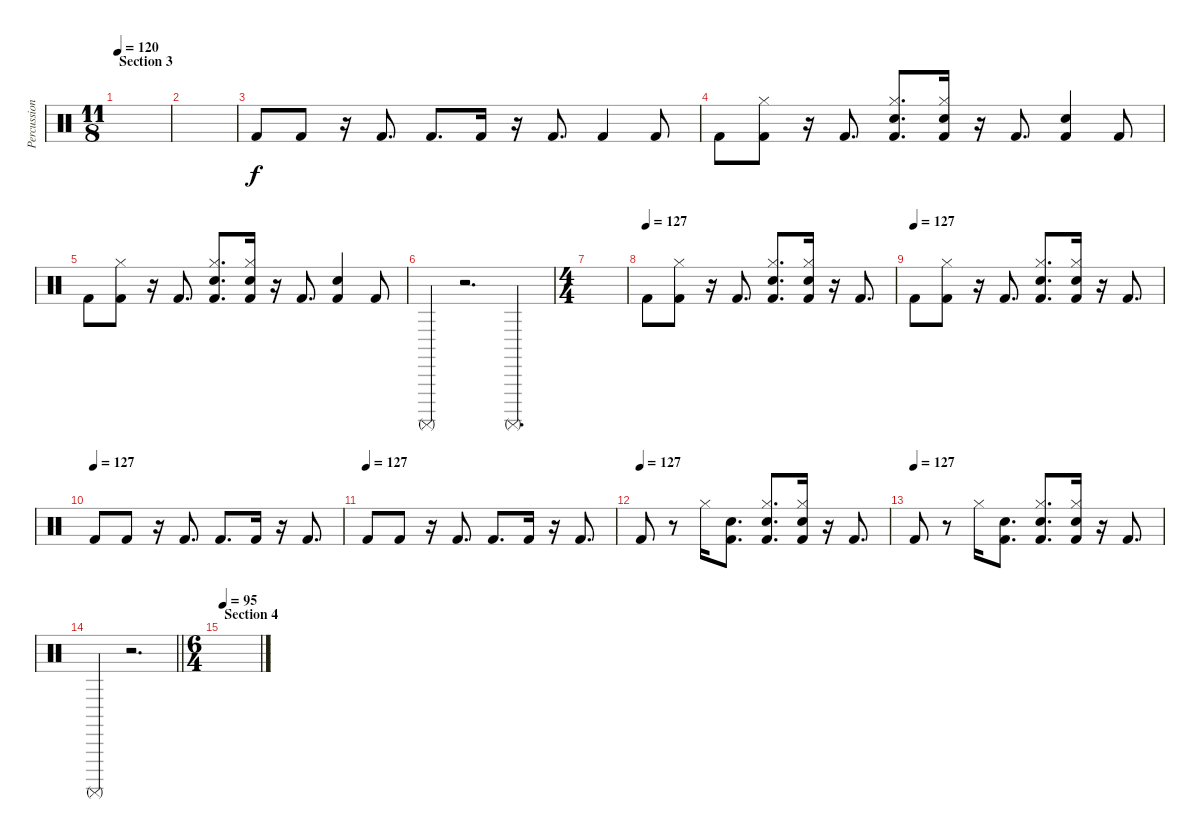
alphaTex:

\track ("Percussion" "Percussion") {instrument percussion}
\staff {score}
\articulation defaults
\ts (11 8)
\section ("" "Section 3")
\tempo 120
\clef neutral
\ks c
|
|
"Kick (hit) 2".8{volume 16} "Kick (hit) 2".8 r.16 "Kick (hit) 2".8{d} "Kick (hit) 2".8{d} "Kick (hit) 2".16 r.16 "Kick (hit) 2".8{d} "Kick (hit) 2".4 "Kick (hit) 2".8 |
"Kick (hit) 2".8 ("Hi-Hat (closed)" "Kick (hit) 2").8 r.16 "Kick (hit) 2".8{d} ("Hi-Hat (closed)" "Hand Clap (hit)" "Kick (hit) 2").8{d} ("Hi-Hat (closed)" "Snare (hit) 2" "Kick (hit) 2").16 r.16 "Kick (hit) 2".8{d} ("Hand Clap (hit)" "Kick (hit) 2").4 "Kick (hit) 2".8 |
"Kick (hit) 2".8 ("Hi-Hat (closed)" "Kick (hit) 2").8 r.16 "Kick (hit) 2".8{d} ("Hi-Hat (closed)" "Hand Clap (hit)" "Kick (hit) 2").8{d} ("Hi-Hat (closed)" "Snare (hit) 2" "Kick (hit) 2").16 r.16 "Kick (hit) 2".8{d} ("Hand Clap (hit)" "Kick (hit) 2").4 "Kick (hit) 2".8 |
"Surdo (mute)".4 r.2{d} "Surdo (mute)".4{d} |
\ts (4 4)
|
\tempo (127)
"Kick (hit) 2".8 ("Hi-Hat (closed)" "Kick (hit) 2").8 r.16 "Kick (hit) 2".8{d} ("Hi-Hat (closed)" "Hand Clap (hit)" "Kick (hit) 2").8{d} ("Hi-Hat (closed)" "Snare (hit) 2" "Kick (hit) 2").16 r.16 "Kick (hit) 2".8{d} |
\tempo (127)
"Kick (hit) 2".8 ("Hi-Hat (closed)" "Kick (hit) 2").8 r.16 "Kick (hit) 2".8{d} ("Hi-Hat (closed)" "Hand Clap (hit)" "Kick (hit) 2").8{d} ("Hi-Hat (closed)" "Snare (hit) 2" "Kick (hit) 2").16 r.16 "Kick (hit) 2".8{d} |
\tempo (127)
"Kick (hit) 2".8{volume 16} "Kick (hit) 2".8 r.16 "Kick (hit) 2".8{d} "Kick (hit) 2".8{d} "Kick (hit) 2".16 r.16 "Kick (hit) 2".8{d} |
\tempo (127)
"Kick (hit) 2".8{volume 16} "Kick (hit) 2".8 r.16 "Kick (hit) 2".8{d} "Kick (hit) 2".8{d} "Kick (hit) 2".16 r.16 "Kick (hit) 2".8{d} |
\tempo (127)
"Kick (hit) 2".8 r.8 "Hi-Hat (closed)".16 ("Hand Clap (hit)" "Kick (hit) 2").8{d} ("Hi-Hat (closed)" "Hand Clap (hit)" "Kick (hit) 2").8{d} ("Hi-Hat (closed)" "Snare (hit) 2" "Kick (hit) 2").16 r.16 "Kick (hit) 2".8{d} |
\tempo (127)
"Kick (hit) 2".8 r.8 "Hi-Hat (closed)".16 ("Hand Clap (hit)" "Kick (hit) 2").8{d} ("Hi-Hat (closed)" "Hand Clap (hit)" "Kick (hit) 2").8{d} ("Hi-Hat (closed)" "Snare (hit) 2" "Kick (hit) 2").16 r.16 "Kick (hit) 2".8{d} |
\barLineRight lightlight "Surdo (mute)".4
r.2{d} |
\ts (6 4)
\section ("" "Section 4")
\tempo 95
